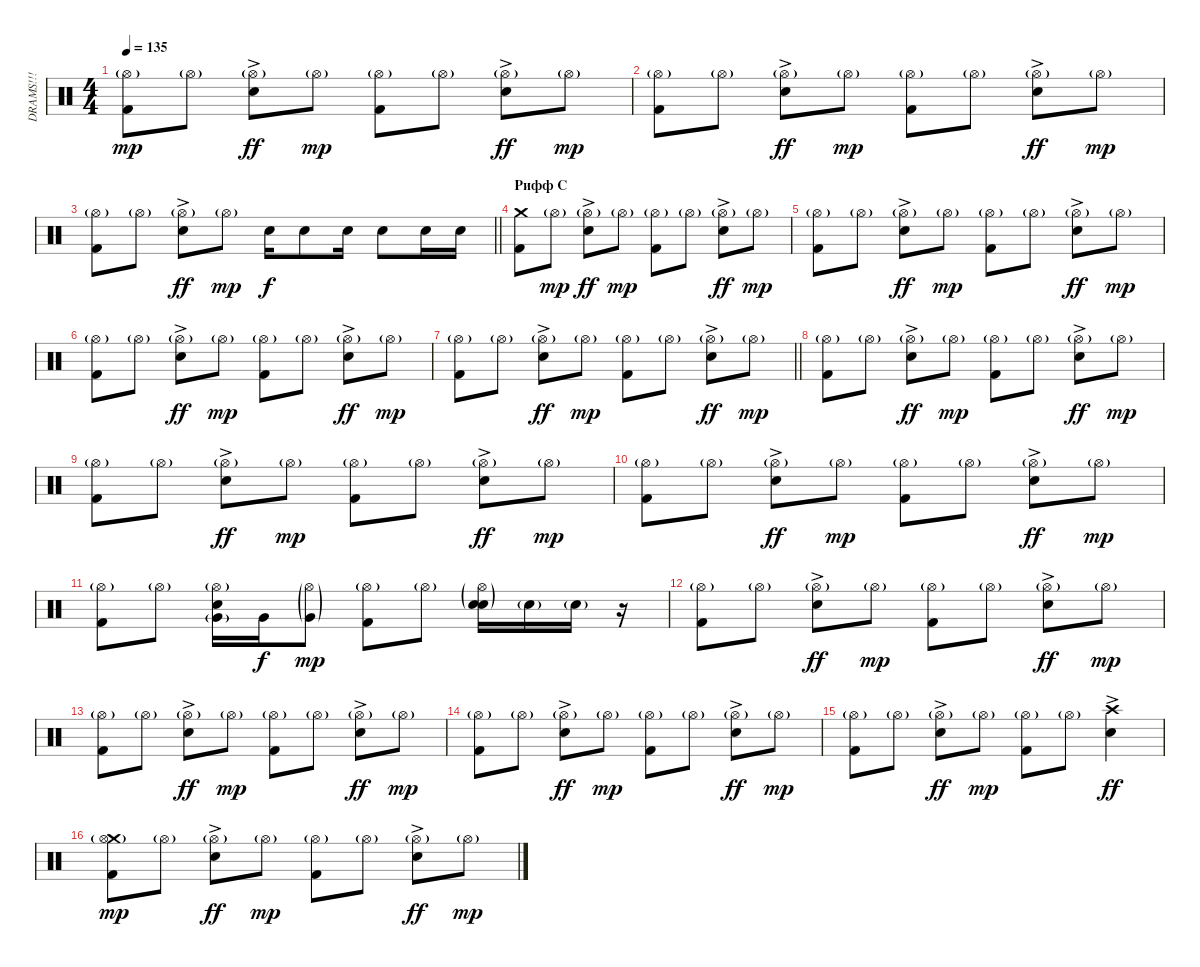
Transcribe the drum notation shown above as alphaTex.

\track ("DRAMS!!!" "DRAMS!!!") {instrument percussion}
\staff {score}
\articulation defaults
\ts (4 4)
\tempo 135
\clef neutral
\ks c
("Hi-Hat (open)"{g} "Kick (hit) 2").8{dy mp} "Hi-Hat (open)"{g}.8 ("Hi-Hat (open)"{g} "Snare (hit) 2"{ac}).8{dy ff} "Hi-Hat (open)"{g}.8{dy mp} ("Hi-Hat (open)"{g} "Kick (hit) 2").8 "Hi-Hat (open)"{g}.8 ("Hi-Hat (open)"{g} "Snare (hit) 2"{ac}).8{dy ff} "Hi-Hat (open)"{g}.8{dy mp} |
("Hi-Hat (open)"{g} "Kick (hit) 2").8 "Hi-Hat (open)"{g}.8 ("Hi-Hat (open)"{g} "Snare (hit) 2"{ac}).8{dy ff} "Hi-Hat (open)"{g}.8{dy mp} ("Hi-Hat (open)"{g} "Kick (hit) 2").8 "Hi-Hat (open)"{g}.8 ("Hi-Hat (open)"{g} "Snare (hit) 2"{ac}).8{dy ff} "Hi-Hat (open)"{g}.8{dy mp} |
\barLineRight lightlight
("Hi-Hat (open)"{g} "Kick (hit) 2").8 "Hi-Hat (open)"{g}.8 ("Hi-Hat (open)"{g} "Snare (hit) 2"{ac}).8{dy ff} "Hi-Hat (open)"{g}.8{dy mp} "Snare (hit) 2".16{dy f} "Snare (hit) 2".8 "Snare (hit) 2".16 "Snare (hit) 2".8 "Snare (hit) 2".16 "Snare (hit) 2".16 |
\section ("" "Рифф С")
("Crash medium (hit)" "Kick (hit) 2").8 "Hi-Hat (open)"{g}.8{dy mp} ("Hi-Hat (open)"{g} "Snare (hit) 2"{ac}).8{dy ff} "Hi-Hat (open)"{g}.8{dy mp} ("Hi-Hat (open)"{g} "Kick (hit) 2").8 "Hi-Hat (open)"{g}.8 ("Hi-Hat (open)"{g} "Snare (hit) 2"{ac}).8{dy ff} "Hi-Hat (open)"{g}.8{dy mp} |
("Hi-Hat (open)"{g} "Kick (hit) 2").8 "Hi-Hat (open)"{g}.8 ("Hi-Hat (open)"{g} "Snare (hit) 2"{ac}).8{dy ff} "Hi-Hat (open)"{g}.8{dy mp} ("Hi-Hat (open)"{g} "Kick (hit) 2").8 "Hi-Hat (open)"{g}.8 ("Hi-Hat (open)"{g} "Snare (hit) 2"{ac}).8{dy ff} "Hi-Hat (open)"{g}.8{dy mp} |
("Hi-Hat (open)"{g} "Kick (hit) 2").8 "Hi-Hat (open)"{g}.8 ("Hi-Hat (open)"{g} "Snare (hit) 2"{ac}).8{dy ff} "Hi-Hat (open)"{g}.8{dy mp} ("Hi-Hat (open)"{g} "Kick (hit) 2").8 "Hi-Hat (open)"{g}.8 ("Hi-Hat (open)"{g} "Snare (hit) 2"{ac}).8{dy ff} "Hi-Hat (open)"{g}.8{dy mp} |
\barLineRight lightlight
("Hi-Hat (open)"{g} "Kick (hit) 2").8 "Hi-Hat (open)"{g}.8 ("Hi-Hat (open)"{g} "Snare (hit) 2"{ac}).8{dy ff} "Hi-Hat (open)"{g}.8{dy mp} ("Hi-Hat (open)"{g} "Kick (hit) 2").8 "Hi-Hat (open)"{g}.8 ("Hi-Hat (open)"{g} "Snare (hit) 2"{ac}).8{dy ff} "Hi-Hat (open)"{g}.8{dy mp} |
\section ("" "")
("Hi-Hat (open)"{g} "Kick (hit) 2").8 "Hi-Hat (open)"{g}.8 ("Hi-Hat (open)"{g} "Snare (hit) 2"{ac}).8{dy ff} "Hi-Hat (open)"{g}.8{dy mp} ("Hi-Hat (open)"{g} "Kick (hit) 2").8 "Hi-Hat (open)"{g}.8 ("Hi-Hat (open)"{g} "Snare (hit) 2"{ac}).8{dy ff} "Hi-Hat (open)"{g}.8{dy mp} |
("Hi-Hat (open)"{g} "Kick (hit) 2").8 "Hi-Hat (open)"{g}.8 ("Hi-Hat (open)"{g} "Snare (hit) 2"{ac}).8{dy ff} "Hi-Hat (open)"{g}.8{dy mp} ("Hi-Hat (open)"{g} "Kick (hit) 2").8 "Hi-Hat (open)"{g}.8 ("Hi-Hat (open)"{g} "Snare (hit) 2"{ac}).8{dy ff} "Hi-Hat (open)"{g}.8{dy mp} |
("Hi-Hat (open)"{g} "Kick (hit) 2").8 "Hi-Hat (open)"{g}.8 ("Hi-Hat (open)"{g} "Snare (hit) 2"{ac}).8{dy ff} "Hi-Hat (open)"{g}.8{dy mp} ("Hi-Hat (open)"{g} "Kick (hit) 2").8 "Hi-Hat (open)"{g}.8 ("Hi-Hat (open)"{g} "Snare (hit) 2"{ac}).8{dy ff} "Hi-Hat (open)"{g}.8{dy mp} |
("Hi-Hat (open)"{g} "Kick (hit) 2").8 "Hi-Hat (open)"{g}.8 ("Hi-Hat (open)"{g} "Very Low Tom (hit)"{g} "Snare (hit) 2").16 "Very Low Tom (hit)".16{dy f} ("Hi-Hat (open)"{g} "Very Low Tom (hit)"{g}).8{dy mp} ("Hi-Hat (open)"{g} "Kick (hit) 2").8 "Hi-Hat (open)"{g}.8 ("Hi-Hat (open)"{g} "Snare (hit) 2"{g} "Snare (hit) 2").16 "Snare (hit) 2"{g}.16 "Snare (hit) 2"{g}.16 r.16 |
("Hi-Hat (open)"{g} "Kick (hit) 2").8 "Hi-Hat (open)"{g}.8 ("Hi-Hat (open)"{g} "Snare (hit) 2"{ac}).8{dy ff} "Hi-Hat (open)"{g}.8{dy mp} ("Hi-Hat (open)"{g} "Kick (hit) 2").8 "Hi-Hat (open)"{g}.8 ("Hi-Hat (open)"{g} "Snare (hit) 2"{ac}).8{dy ff} "Hi-Hat (open)"{g}.8{dy mp} |
("Hi-Hat (open)"{g} "Kick (hit) 2").8 "Hi-Hat (open)"{g}.8 ("Hi-Hat (open)"{g} "Snare (hit) 2"{ac}).8{dy ff} "Hi-Hat (open)"{g}.8{dy mp} ("Hi-Hat (open)"{g} "Kick (hit) 2").8 "Hi-Hat (open)"{g}.8 ("Hi-Hat (open)"{g} "Snare (hit) 2"{ac}).8{dy ff} "Hi-Hat (open)"{g}.8{dy mp} |
("Hi-Hat (open)"{g} "Kick (hit) 2").8 "Hi-Hat (open)"{g}.8 ("Hi-Hat (open)"{g} "Snare (hit) 2"{ac}).8{dy ff} "Hi-Hat (open)"{g}.8{dy mp} ("Hi-Hat (open)"{g} "Kick (hit) 2").8 "Hi-Hat (open)"{g}.8 ("Hi-Hat (open)"{g} "Snare (hit) 2"{ac}).8{dy ff} "Hi-Hat (open)"{g}.8{dy mp} |
("Hi-Hat (open)"{g} "Kick (hit) 2").8 "Hi-Hat (open)"{g}.8 ("Hi-Hat (open)"{g} "Snare (hit) 2"{ac}).8{dy ff} "Hi-Hat (open)"{g}.8{dy mp} ("Hi-Hat (open)"{g} "Kick (hit) 2").8 "Hi-Hat (open)"{g}.8 ("Crash high (hit)" "Snare (hit) 2"{ac}).4{dy ff} |
("Crash medium (hit)" "Hi-Hat (open)"{g} "Kick (hit) 2").8{dy mp} "Hi-Hat (open)"{g}.8 ("Hi-Hat (open)"{g} "Snare (hit) 2"{ac}).8{dy ff} "Hi-Hat (open)"{g}.8{dy mp} ("Hi-Hat (open)"{g} "Kick (hit) 2").8 "Hi-Hat (open)"{g}.8 ("Hi-Hat (open)"{g} "Snare (hit) 2"{ac}).8{dy ff} "Hi-Hat (open)"{g}.8{dy mp}
